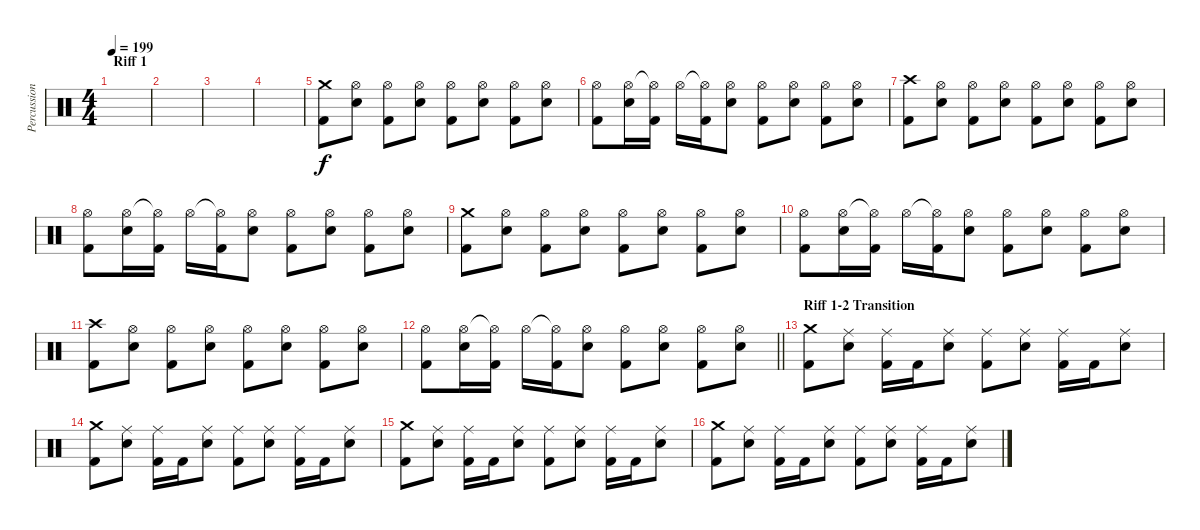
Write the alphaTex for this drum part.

\track ("Percussion" "Percussion") {instrument percussion}
\staff {score}
\articulation defaults
\ts (4 4)
\section ("" "Riff 1")
\tempo 199
\clef neutral
\ks c
|
|
|
|
("Crash medium (hit)" "Kick (hit) 2").8 ("Hi-Hat (open)" "Electric Snare (hit)").8 ("Hi-Hat (open)" "Kick (hit) 2").8 ("Hi-Hat (open)" "Electric Snare (hit)").8 ("Hi-Hat (open)" "Kick (hit) 2").8 ("Hi-Hat (open)" "Electric Snare (hit)").8 ("Hi-Hat (open)" "Kick (hit) 2").8 ("Hi-Hat (open)" "Electric Snare (hit)").8 |
("Hi-Hat (open)" "Kick (hit) 2").8 ("Hi-Hat (open)" "Electric Snare (hit)").16 ("Hi-Hat (open)"{t} "Kick (hit) 2").16 "Hi-Hat (open)".16 ("Hi-Hat (open)"{t} "Kick (hit) 2").16 ("Hi-Hat (open)" "Electric Snare (hit)").8 ("Hi-Hat (open)" "Kick (hit) 2").8 ("Hi-Hat (open)" "Electric Snare (hit)").8 ("Hi-Hat (open)" "Kick (hit) 2").8 ("Hi-Hat (open)" "Electric Snare (hit)").8 |
("Crash high (hit)" "Kick (hit) 2").8 ("Hi-Hat (open)" "Electric Snare (hit)").8 ("Hi-Hat (open)" "Kick (hit) 2").8 ("Hi-Hat (open)" "Electric Snare (hit)").8 ("Hi-Hat (open)" "Kick (hit) 2").8 ("Hi-Hat (open)" "Electric Snare (hit)").8 ("Hi-Hat (open)" "Kick (hit) 2").8 ("Hi-Hat (open)" "Electric Snare (hit)").8 |
("Hi-Hat (open)" "Kick (hit) 2").8 ("Hi-Hat (open)" "Electric Snare (hit)").16 ("Hi-Hat (open)"{t} "Kick (hit) 2").16 "Hi-Hat (open)".16 ("Hi-Hat (open)"{t} "Kick (hit) 2").16 ("Hi-Hat (open)" "Electric Snare (hit)").8 ("Hi-Hat (open)" "Kick (hit) 2").8 ("Hi-Hat (open)" "Electric Snare (hit)").8 ("Hi-Hat (open)" "Kick (hit) 2").8 ("Hi-Hat (open)" "Electric Snare (hit)").8 |
("Crash medium (hit)" "Kick (hit) 2").8 ("Hi-Hat (open)" "Electric Snare (hit)").8 ("Hi-Hat (open)" "Kick (hit) 2").8 ("Hi-Hat (open)" "Electric Snare (hit)").8 ("Hi-Hat (open)" "Kick (hit) 2").8 ("Hi-Hat (open)" "Electric Snare (hit)").8 ("Hi-Hat (open)" "Kick (hit) 2").8 ("Hi-Hat (open)" "Electric Snare (hit)").8 |
("Hi-Hat (open)" "Kick (hit) 2").8 ("Hi-Hat (open)" "Electric Snare (hit)").16 ("Hi-Hat (open)"{t} "Kick (hit) 2").16 "Hi-Hat (open)".16 ("Hi-Hat (open)"{t} "Kick (hit) 2").16 ("Hi-Hat (open)" "Electric Snare (hit)").8 ("Hi-Hat (open)" "Kick (hit) 2").8 ("Hi-Hat (open)" "Electric Snare (hit)").8 ("Hi-Hat (open)" "Kick (hit) 2").8 ("Hi-Hat (open)" "Electric Snare (hit)").8 |
("Crash high (hit)" "Kick (hit) 2").8 ("Hi-Hat (open)" "Electric Snare (hit)").8 ("Hi-Hat (open)" "Kick (hit) 2").8 ("Hi-Hat (open)" "Electric Snare (hit)").8 ("Hi-Hat (open)" "Kick (hit) 2").8 ("Hi-Hat (open)" "Electric Snare (hit)").8 ("Hi-Hat (open)" "Kick (hit) 2").8 ("Hi-Hat (open)" "Electric Snare (hit)").8 |
\barLineRight lightlight
("Hi-Hat (open)" "Kick (hit) 2").8 ("Hi-Hat (open)" "Electric Snare (hit)").16 ("Hi-Hat (open)"{t} "Kick (hit) 2").16 "Hi-Hat (open)".16 ("Hi-Hat (open)"{t} "Kick (hit) 2").16 ("Hi-Hat (open)" "Electric Snare (hit)").8 ("Hi-Hat (open)" "Kick (hit) 2").8 ("Hi-Hat (open)" "Electric Snare (hit)").8 ("Hi-Hat (open)" "Kick (hit) 2").8 ("Hi-Hat (open)" "Electric Snare (hit)").8 |
\section ("" "Riff 1-2 Transition")
("Crash medium (hit)" "Kick (hit) 2").8 ("Ride (middle)" "Electric Snare (hit)").8 ("Ride (middle)" "Kick (hit) 2").16 "Kick (hit) 2".16 ("Ride (middle)" "Electric Snare (hit)").8 ("Ride (middle)" "Kick (hit) 2").8 ("Ride (middle)" "Electric Snare (hit)").8 ("Ride (middle)" "Kick (hit) 2").16 "Kick (hit) 2".16 ("Ride (middle)" "Electric Snare (hit)").8 |
("Crash medium (hit)" "Kick (hit) 2").8 ("Ride (middle)" "Electric Snare (hit)").8 ("Ride (middle)" "Kick (hit) 2").16 "Kick (hit) 2".16 ("Ride (middle)" "Electric Snare (hit)").8 ("Ride (middle)" "Kick (hit) 2").8 ("Ride (middle)" "Electric Snare (hit)").8 ("Ride (middle)" "Kick (hit) 2").16 "Kick (hit) 2".16 ("Ride (middle)" "Electric Snare (hit)").8 |
("Crash medium (hit)" "Kick (hit) 2").8 ("Ride (middle)" "Electric Snare (hit)").8 ("Ride (middle)" "Kick (hit) 2").16 "Kick (hit) 2".16 ("Ride (middle)" "Electric Snare (hit)").8 ("Ride (middle)" "Kick (hit) 2").8 ("Ride (middle)" "Electric Snare (hit)").8 ("Ride (middle)" "Kick (hit) 2").16 "Kick (hit) 2".16 ("Ride (middle)" "Electric Snare (hit)").8 |
("Crash medium (hit)" "Kick (hit) 2").8 ("Ride (middle)" "Electric Snare (hit)").8 ("Ride (middle)" "Kick (hit) 2").16 "Kick (hit) 2".16 ("Ride (middle)" "Electric Snare (hit)").8 ("Ride (middle)" "Kick (hit) 2").8 ("Ride (middle)" "Electric Snare (hit)").8 ("Ride (middle)" "Kick (hit) 2").16 "Kick (hit) 2".16 ("Ride (middle)" "Electric Snare (hit)").8
